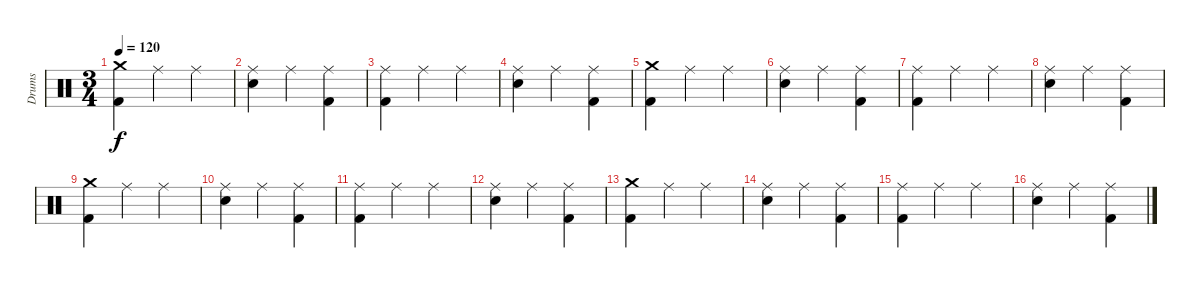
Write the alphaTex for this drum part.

\track ("Drums" "Drums") {instrument percussion}
\staff {score}
\articulation defaults
\ts (3 4)
\tempo 120
\clef neutral
\ks c
("Crash medium (hit)" "Kick (hit) 2").4{dy f} "Ride (middle)".4 "Ride (middle)".4 |
("Ride (middle)" "Electric Snare (hit)").4 "Ride (middle)".4 ("Ride (middle)" "Kick (hit) 2").4 |
("Ride (middle)" "Kick (hit) 2").4 "Ride (middle)".4 "Ride (middle)".4 |
("Ride (middle)" "Electric Snare (hit)").4 "Ride (middle)".4 ("Ride (middle)" "Kick (hit) 2").4 |
("Crash medium (hit)" "Kick (hit) 2").4 "Ride (middle)".4 "Ride (middle)".4 |
("Ride (middle)" "Electric Snare (hit)").4 "Ride (middle)".4 ("Ride (middle)" "Kick (hit) 2").4 |
("Ride (middle)" "Kick (hit) 2").4 "Ride (middle)".4 "Ride (middle)".4 |
("Ride (middle)" "Electric Snare (hit)").4 "Ride (middle)".4 ("Ride (middle)" "Kick (hit) 2").4 |
("Crash medium (hit)" "Kick (hit) 2").4 "Ride (middle)".4 "Ride (middle)".4 |
("Ride (middle)" "Electric Snare (hit)").4 "Ride (middle)".4 ("Ride (middle)" "Kick (hit) 2").4 |
("Ride (middle)" "Kick (hit) 2").4 "Ride (middle)".4 "Ride (middle)".4 |
("Ride (middle)" "Electric Snare (hit)").4 "Ride (middle)".4 ("Ride (middle)" "Kick (hit) 2").4 |
("Crash medium (hit)" "Kick (hit) 2").4 "Ride (middle)".4 "Ride (middle)".4 |
("Ride (middle)" "Electric Snare (hit)").4 "Ride (middle)".4 ("Ride (middle)" "Kick (hit) 2").4 |
("Ride (middle)" "Kick (hit) 2").4 "Ride (middle)".4 "Ride (middle)".4 |
("Ride (middle)" "Electric Snare (hit)").4 "Ride (middle)".4 ("Ride (middle)" "Kick (hit) 2").4
